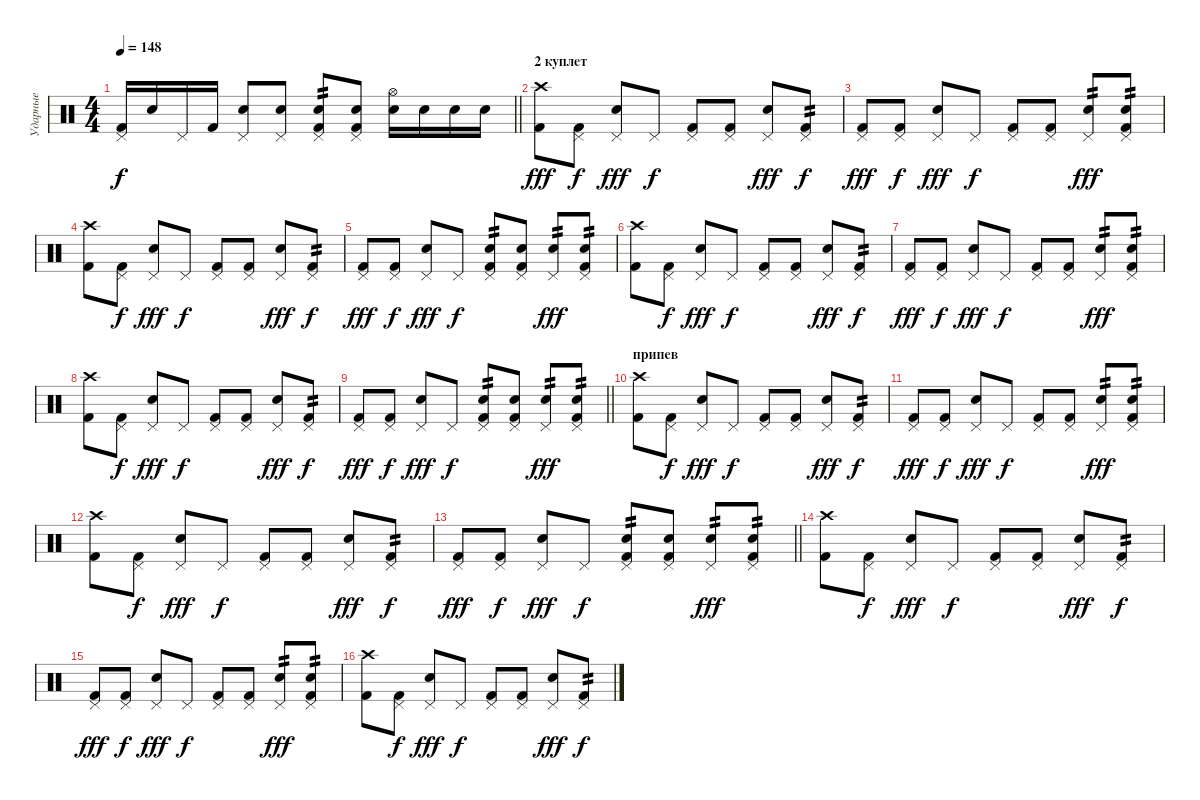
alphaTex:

\track ("Ударные" "Ударные") {instrument percussion}
\staff
\articulation defaults
\ts (4 4)
\tempo 148
\clef neutral
\barLineRight lightlight
\ks c
("Pedal Hi-Hat (hit)" "Kick (hit) 2").16{dy f} "Electric Snare (hit)".16 "Pedal Hi-Hat (hit)".16 "Kick (hit) 2".16 ("Pedal Hi-Hat (hit)" "Electric Snare (hit)").8 ("Pedal Hi-Hat (hit)" "Electric Snare (hit)").8 ("Pedal Hi-Hat (hit)" "Electric Snare (hit)" "Kick (hit) 2").8{tp 2} ("Pedal Hi-Hat (hit)" "Electric Snare (hit)" "Kick (hit) 2").8 ("Hi-Hat (open)" "Electric Snare (hit)").16 "Electric Snare (hit)".16 "Electric Snare (hit)".16 "Electric Snare (hit)".16 |
\section ("" "2 куплет")
("Crash high (hit)" "Kick (hit) 2").8{dy fff} ("Pedal Hi-Hat (hit)" "Kick (hit) 2").8{dy f} ("Pedal Hi-Hat (hit)" "Electric Snare (hit)").8{dy fff} "Pedal Hi-Hat (hit)".8{dy f} ("Pedal Hi-Hat (hit)" "Kick (hit) 2").8 ("Pedal Hi-Hat (hit)" "Kick (hit) 2").8 ("Pedal Hi-Hat (hit)" "Electric Snare (hit)").8{dy fff} ("Pedal Hi-Hat (hit)" "Kick (hit) 2").8{tp 2 dy f} |
("Pedal Hi-Hat (hit)" "Kick (hit) 2").8{dy fff} ("Pedal Hi-Hat (hit)" "Kick (hit) 2").8{dy f} ("Pedal Hi-Hat (hit)" "Electric Snare (hit)").8{dy fff} "Pedal Hi-Hat (hit)".8{dy f} ("Pedal Hi-Hat (hit)" "Kick (hit) 2").8 ("Pedal Hi-Hat (hit)" "Kick (hit) 2").8 ("Pedal Hi-Hat (hit)" "Electric Snare (hit)").8{tp 2 dy fff} ("Pedal Hi-Hat (hit)" "Electric Snare (hit)" "Kick (hit) 2").8{tp 2} |
("Crash high (hit)" "Kick (hit) 2").8 ("Pedal Hi-Hat (hit)" "Kick (hit) 2").8{dy f} ("Pedal Hi-Hat (hit)" "Electric Snare (hit)").8{dy fff} "Pedal Hi-Hat (hit)".8{dy f} ("Pedal Hi-Hat (hit)" "Kick (hit) 2").8 ("Pedal Hi-Hat (hit)" "Kick (hit) 2").8 ("Pedal Hi-Hat (hit)" "Electric Snare (hit)").8{dy fff} ("Pedal Hi-Hat (hit)" "Kick (hit) 2").8{tp 2 dy f} |
("Pedal Hi-Hat (hit)" "Kick (hit) 2").8{dy fff} ("Pedal Hi-Hat (hit)" "Kick (hit) 2").8{dy f} ("Pedal Hi-Hat (hit)" "Electric Snare (hit)").8{dy fff} "Pedal Hi-Hat (hit)".8{dy f} ("Pedal Hi-Hat (hit)" "Electric Snare (hit)" "Kick (hit) 2").8{tp 2} ("Pedal Hi-Hat (hit)" "Electric Snare (hit)" "Kick (hit) 2").8 ("Pedal Hi-Hat (hit)" "Electric Snare (hit)").8{tp 2 dy fff} ("Pedal Hi-Hat (hit)" "Electric Snare (hit)" "Kick (hit) 2").8{tp 2} |
("Crash high (hit)" "Kick (hit) 2").8 ("Pedal Hi-Hat (hit)" "Kick (hit) 2").8{dy f} ("Pedal Hi-Hat (hit)" "Electric Snare (hit)").8{dy fff} "Pedal Hi-Hat (hit)".8{dy f} ("Pedal Hi-Hat (hit)" "Kick (hit) 2").8 ("Pedal Hi-Hat (hit)" "Kick (hit) 2").8 ("Pedal Hi-Hat (hit)" "Electric Snare (hit)").8{dy fff} ("Pedal Hi-Hat (hit)" "Kick (hit) 2").8{tp 2 dy f} |
("Pedal Hi-Hat (hit)" "Kick (hit) 2").8{dy fff} ("Pedal Hi-Hat (hit)" "Kick (hit) 2").8{dy f} ("Pedal Hi-Hat (hit)" "Electric Snare (hit)").8{dy fff} "Pedal Hi-Hat (hit)".8{dy f} ("Pedal Hi-Hat (hit)" "Kick (hit) 2").8 ("Pedal Hi-Hat (hit)" "Kick (hit) 2").8 ("Pedal Hi-Hat (hit)" "Electric Snare (hit)").8{tp 2 dy fff} ("Pedal Hi-Hat (hit)" "Electric Snare (hit)" "Kick (hit) 2").8{tp 2} |
("Crash high (hit)" "Kick (hit) 2").8 ("Pedal Hi-Hat (hit)" "Kick (hit) 2").8{dy f} ("Pedal Hi-Hat (hit)" "Electric Snare (hit)").8{dy fff} "Pedal Hi-Hat (hit)".8{dy f} ("Pedal Hi-Hat (hit)" "Kick (hit) 2").8 ("Pedal Hi-Hat (hit)" "Kick (hit) 2").8 ("Pedal Hi-Hat (hit)" "Electric Snare (hit)").8{dy fff} ("Pedal Hi-Hat (hit)" "Kick (hit) 2").8{tp 2 dy f} |
\barLineRight lightlight
("Pedal Hi-Hat (hit)" "Kick (hit) 2").8{dy fff} ("Pedal Hi-Hat (hit)" "Kick (hit) 2").8{dy f} ("Pedal Hi-Hat (hit)" "Electric Snare (hit)").8{dy fff} "Pedal Hi-Hat (hit)".8{dy f} ("Pedal Hi-Hat (hit)" "Electric Snare (hit)" "Kick (hit) 2").8{tp 2} ("Pedal Hi-Hat (hit)" "Electric Snare (hit)" "Kick (hit) 2").8 ("Pedal Hi-Hat (hit)" "Electric Snare (hit)").8{tp 2 dy fff} ("Pedal Hi-Hat (hit)" "Electric Snare (hit)" "Kick (hit) 2").8{tp 2} |
\section ("" "припев")
("Crash high (hit)" "Kick (hit) 2").8 ("Pedal Hi-Hat (hit)" "Kick (hit) 2").8{dy f} ("Pedal Hi-Hat (hit)" "Electric Snare (hit)").8{dy fff} "Pedal Hi-Hat (hit)".8{dy f} ("Pedal Hi-Hat (hit)" "Kick (hit) 2").8 ("Pedal Hi-Hat (hit)" "Kick (hit) 2").8 ("Pedal Hi-Hat (hit)" "Electric Snare (hit)").8{dy fff} ("Pedal Hi-Hat (hit)" "Kick (hit) 2").8{tp 2 dy f} |
("Pedal Hi-Hat (hit)" "Kick (hit) 2").8{dy fff} ("Pedal Hi-Hat (hit)" "Kick (hit) 2").8{dy f} ("Pedal Hi-Hat (hit)" "Electric Snare (hit)").8{dy fff} "Pedal Hi-Hat (hit)".8{dy f} ("Pedal Hi-Hat (hit)" "Kick (hit) 2").8 ("Pedal Hi-Hat (hit)" "Kick (hit) 2").8 ("Pedal Hi-Hat (hit)" "Electric Snare (hit)").8{tp 2 dy fff} ("Pedal Hi-Hat (hit)" "Electric Snare (hit)" "Kick (hit) 2").8{tp 2} |
("Crash high (hit)" "Kick (hit) 2").8 ("Pedal Hi-Hat (hit)" "Kick (hit) 2").8{dy f} ("Pedal Hi-Hat (hit)" "Electric Snare (hit)").8{dy fff} "Pedal Hi-Hat (hit)".8{dy f} ("Pedal Hi-Hat (hit)" "Kick (hit) 2").8 ("Pedal Hi-Hat (hit)" "Kick (hit) 2").8 ("Pedal Hi-Hat (hit)" "Electric Snare (hit)").8{dy fff} ("Pedal Hi-Hat (hit)" "Kick (hit) 2").8{tp 2 dy f} |
\barLineRight lightlight
("Pedal Hi-Hat (hit)" "Kick (hit) 2").8{dy fff} ("Pedal Hi-Hat (hit)" "Kick (hit) 2").8{dy f} ("Pedal Hi-Hat (hit)" "Electric Snare (hit)").8{dy fff} "Pedal Hi-Hat (hit)".8{dy f} ("Pedal Hi-Hat (hit)" "Electric Snare (hit)" "Kick (hit) 2").8{tp 2} ("Pedal Hi-Hat (hit)" "Electric Snare (hit)" "Kick (hit) 2").8 ("Pedal Hi-Hat (hit)" "Electric Snare (hit)").8{tp 2 dy fff} ("Pedal Hi-Hat (hit)" "Electric Snare (hit)" "Kick (hit) 2").8{tp 2} |
("Crash high (hit)" "Kick (hit) 2").8 ("Pedal Hi-Hat (hit)" "Kick (hit) 2").8{dy f} ("Pedal Hi-Hat (hit)" "Electric Snare (hit)").8{dy fff} "Pedal Hi-Hat (hit)".8{dy f} ("Pedal Hi-Hat (hit)" "Kick (hit) 2").8 ("Pedal Hi-Hat (hit)" "Kick (hit) 2").8 ("Pedal Hi-Hat (hit)" "Electric Snare (hit)").8{dy fff} ("Pedal Hi-Hat (hit)" "Kick (hit) 2").8{tp 2 dy f} |
("Pedal Hi-Hat (hit)" "Kick (hit) 2").8{dy fff} ("Pedal Hi-Hat (hit)" "Kick (hit) 2").8{dy f} ("Pedal Hi-Hat (hit)" "Electric Snare (hit)").8{dy fff} "Pedal Hi-Hat (hit)".8{dy f} ("Pedal Hi-Hat (hit)" "Kick (hit) 2").8 ("Pedal Hi-Hat (hit)" "Kick (hit) 2").8 ("Pedal Hi-Hat (hit)" "Electric Snare (hit)").8{tp 2 dy fff} ("Pedal Hi-Hat (hit)" "Electric Snare (hit)" "Kick (hit) 2").8{tp 2} |
("Crash high (hit)" "Kick (hit) 2").8 ("Pedal Hi-Hat (hit)" "Kick (hit) 2").8{dy f} ("Pedal Hi-Hat (hit)" "Electric Snare (hit)").8{dy fff} "Pedal Hi-Hat (hit)".8{dy f} ("Pedal Hi-Hat (hit)" "Kick (hit) 2").8 ("Pedal Hi-Hat (hit)" "Kick (hit) 2").8 ("Pedal Hi-Hat (hit)" "Electric Snare (hit)").8{dy fff} ("Pedal Hi-Hat (hit)" "Kick (hit) 2").8{tp 2 dy f}
